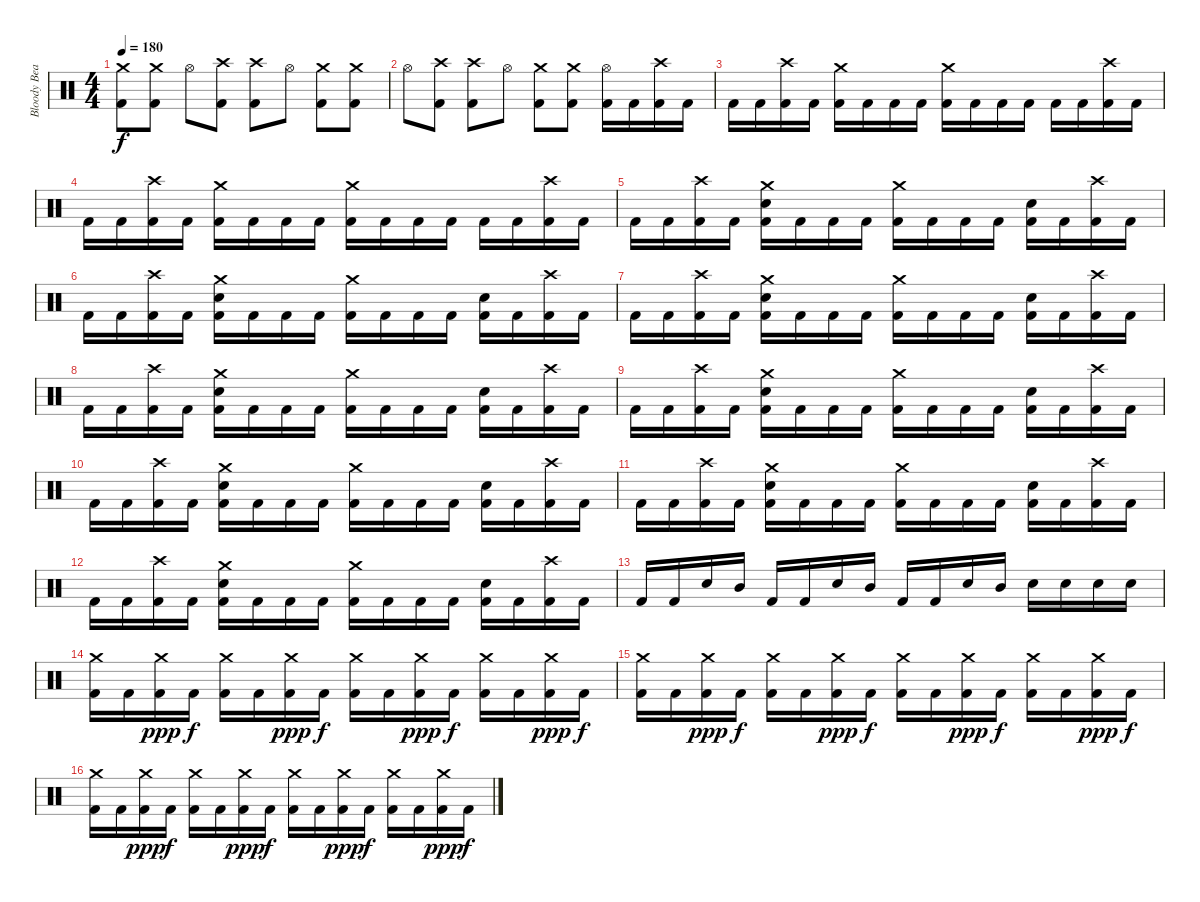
\track ("Bloody Beater" "Bloody Bea") {instrument percussion}
\staff {score}
\articulation defaults
\ts (4 4)
\tempo 180
\clef neutral
\ks c
("Crash medium (hit)" "Kick (hit) 2").8{dy f} ("Crash medium (hit)" "Kick (hit) 2").8 "Hi-Hat (open)".8 ("Crash high (hit)" "Kick (hit) 2").8 ("Crash high (hit)" "Kick (hit) 2").8 "Hi-Hat (open)".8 ("Crash medium (hit)" "Kick (hit) 2").8 ("Crash medium (hit)" "Kick (hit) 2").8 |
"Hi-Hat (open)".8 ("Crash high (hit)" "Kick (hit) 2").8 ("Crash high (hit)" "Kick (hit) 2").8 "Hi-Hat (open)".8 ("Crash medium (hit)" "Kick (hit) 2").8 ("Crash medium (hit)" "Kick (hit) 2").8 ("Hi-Hat (open)" "Kick (hit) 2").16 "Kick (hit) 2".16 ("Crash high (hit)" "Kick (hit) 2").16 "Kick (hit) 2".16 |
"Kick (hit) 2".16 "Kick (hit) 2".16 ("Crash high (hit)" "Kick (hit) 2").16 "Kick (hit) 2".16 ("Crash medium (hit)" "Kick (hit) 2").16 "Kick (hit) 2".16 "Kick (hit) 2".16 "Kick (hit) 2".16 ("Crash medium (hit)" "Kick (hit) 2").16 "Kick (hit) 2".16 "Kick (hit) 2".16 "Kick (hit) 2".16 "Kick (hit) 2".16 "Kick (hit) 2".16 ("Crash high (hit)" "Kick (hit) 2").16 "Kick (hit) 2".16 |
"Kick (hit) 2".16 "Kick (hit) 2".16 ("Crash high (hit)" "Kick (hit) 2").16 "Kick (hit) 2".16 ("Crash medium (hit)" "Kick (hit) 2").16 "Kick (hit) 2".16 "Kick (hit) 2".16 "Kick (hit) 2".16 ("Crash medium (hit)" "Kick (hit) 2").16 "Kick (hit) 2".16 "Kick (hit) 2".16 "Kick (hit) 2".16 "Kick (hit) 2".16 "Kick (hit) 2".16 ("Crash high (hit)" "Kick (hit) 2").16 "Kick (hit) 2".16 |
"Kick (hit) 2".16 "Kick (hit) 2".16 ("Crash high (hit)" "Kick (hit) 2").16 "Kick (hit) 2".16 ("Crash medium (hit)" "Snare (hit) 2" "Kick (hit) 2").16 "Kick (hit) 2".16 "Kick (hit) 2".16 "Kick (hit) 2".16 ("Crash medium (hit)" "Kick (hit) 2").16 "Kick (hit) 2".16 "Kick (hit) 2".16 "Kick (hit) 2".16 ("Snare (hit) 2" "Kick (hit) 2").16 "Kick (hit) 2".16 ("Crash high (hit)" "Kick (hit) 2").16 "Kick (hit) 2".16 |
"Kick (hit) 2".16 "Kick (hit) 2".16 ("Crash high (hit)" "Kick (hit) 2").16 "Kick (hit) 2".16 ("Crash medium (hit)" "Snare (hit) 2" "Kick (hit) 2").16 "Kick (hit) 2".16 "Kick (hit) 2".16 "Kick (hit) 2".16 ("Crash medium (hit)" "Kick (hit) 2").16 "Kick (hit) 2".16 "Kick (hit) 2".16 "Kick (hit) 2".16 ("Snare (hit) 2" "Kick (hit) 2").16 "Kick (hit) 2".16 ("Crash high (hit)" "Kick (hit) 2").16 "Kick (hit) 2".16 |
"Kick (hit) 2".16 "Kick (hit) 2".16 ("Crash high (hit)" "Kick (hit) 2").16 "Kick (hit) 2".16 ("Crash medium (hit)" "Snare (hit) 2" "Kick (hit) 2").16 "Kick (hit) 2".16 "Kick (hit) 2".16 "Kick (hit) 2".16 ("Crash medium (hit)" "Kick (hit) 2").16 "Kick (hit) 2".16 "Kick (hit) 2".16 "Kick (hit) 2".16 ("Snare (hit) 2" "Kick (hit) 2").16 "Kick (hit) 2".16 ("Crash high (hit)" "Kick (hit) 2").16 "Kick (hit) 2".16 |
"Kick (hit) 2".16 "Kick (hit) 2".16 ("Crash high (hit)" "Kick (hit) 2").16 "Kick (hit) 2".16 ("Crash medium (hit)" "Snare (hit) 2" "Kick (hit) 2").16 "Kick (hit) 2".16 "Kick (hit) 2".16 "Kick (hit) 2".16 ("Crash medium (hit)" "Kick (hit) 2").16 "Kick (hit) 2".16 "Kick (hit) 2".16 "Kick (hit) 2".16 ("Snare (hit) 2" "Kick (hit) 2").16 "Kick (hit) 2".16 ("Crash high (hit)" "Kick (hit) 2").16 "Kick (hit) 2".16 |
"Kick (hit) 2".16 "Kick (hit) 2".16 ("Crash high (hit)" "Kick (hit) 2").16 "Kick (hit) 2".16 ("Crash medium (hit)" "Snare (hit) 2" "Kick (hit) 2").16 "Kick (hit) 2".16 "Kick (hit) 2".16 "Kick (hit) 2".16 ("Crash medium (hit)" "Kick (hit) 2").16 "Kick (hit) 2".16 "Kick (hit) 2".16 "Kick (hit) 2".16 ("Snare (hit) 2" "Kick (hit) 2").16 "Kick (hit) 2".16 ("Crash high (hit)" "Kick (hit) 2").16 "Kick (hit) 2".16 |
"Kick (hit) 2".16 "Kick (hit) 2".16 ("Crash high (hit)" "Kick (hit) 2").16 "Kick (hit) 2".16 ("Crash medium (hit)" "Snare (hit) 2" "Kick (hit) 2").16 "Kick (hit) 2".16 "Kick (hit) 2".16 "Kick (hit) 2".16 ("Crash medium (hit)" "Kick (hit) 2").16 "Kick (hit) 2".16 "Kick (hit) 2".16 "Kick (hit) 2".16 ("Snare (hit) 2" "Kick (hit) 2").16 "Kick (hit) 2".16 ("Crash high (hit)" "Kick (hit) 2").16 "Kick (hit) 2".16 |
"Kick (hit) 2".16 "Kick (hit) 2".16 ("Crash high (hit)" "Kick (hit) 2").16 "Kick (hit) 2".16 ("Crash medium (hit)" "Snare (hit) 2" "Kick (hit) 2").16 "Kick (hit) 2".16 "Kick (hit) 2".16 "Kick (hit) 2".16 ("Crash medium (hit)" "Kick (hit) 2").16 "Kick (hit) 2".16 "Kick (hit) 2".16 "Kick (hit) 2".16 ("Snare (hit) 2" "Kick (hit) 2").16 "Kick (hit) 2".16 ("Crash high (hit)" "Kick (hit) 2").16 "Kick (hit) 2".16 |
"Kick (hit) 2".16 "Kick (hit) 2".16 ("Crash high (hit)" "Kick (hit) 2").16 "Kick (hit) 2".16 ("Crash medium (hit)" "Snare (hit) 2" "Kick (hit) 2").16 "Kick (hit) 2".16 "Kick (hit) 2".16 "Kick (hit) 2".16 ("Crash medium (hit)" "Kick (hit) 2").16 "Kick (hit) 2".16 "Kick (hit) 2".16 "Kick (hit) 2".16 ("Snare (hit) 2" "Kick (hit) 2").16 "Kick (hit) 2".16 ("Crash high (hit)" "Kick (hit) 2").16 "Kick (hit) 2".16 |
"Kick (hit) 2".16 "Kick (hit) 2".16 "Snare (hit) 2".16 "Mid Tom (hit)".16 "Kick (hit) 2".16 "Kick (hit) 2".16 "Snare (hit) 2".16 "Mid Tom (hit)".16 "Kick (hit) 2".16 "Kick (hit) 2".16 "Snare (hit) 2".16 "Mid Tom (hit)".16 "Snare (hit) 2".16 "Snare (hit) 2".16 "Snare (hit) 2".16 "Snare (hit) 2".16 |
("Crash medium (hit)" "Kick (hit) 2").16 "Kick (hit) 2".16 ("Crash medium (hit)" "Kick (hit) 2").16{dy ppp} "Kick (hit) 2".16{dy f} ("Crash medium (hit)" "Kick (hit) 2").16 "Kick (hit) 2".16 ("Crash medium (hit)" "Kick (hit) 2").16{dy ppp} "Kick (hit) 2".16{dy f} ("Crash medium (hit)" "Kick (hit) 2").16 "Kick (hit) 2".16 ("Crash medium (hit)" "Kick (hit) 2").16{dy ppp} "Kick (hit) 2".16{dy f} ("Crash medium (hit)" "Kick (hit) 2").16 "Kick (hit) 2".16 ("Crash medium (hit)" "Kick (hit) 2").16{dy ppp} "Kick (hit) 2".16{dy f} |
("Crash medium (hit)" "Kick (hit) 2").16 "Kick (hit) 2".16 ("Crash medium (hit)" "Kick (hit) 2").16{dy ppp} "Kick (hit) 2".16{dy f} ("Crash medium (hit)" "Kick (hit) 2").16 "Kick (hit) 2".16 ("Crash medium (hit)" "Kick (hit) 2").16{dy ppp} "Kick (hit) 2".16{dy f} ("Crash medium (hit)" "Kick (hit) 2").16 "Kick (hit) 2".16 ("Crash medium (hit)" "Kick (hit) 2").16{dy ppp} "Kick (hit) 2".16{dy f} ("Crash medium (hit)" "Kick (hit) 2").16 "Kick (hit) 2".16 ("Crash medium (hit)" "Kick (hit) 2").16{dy ppp} "Kick (hit) 2".16{dy f} |
("Crash medium (hit)" "Kick (hit) 2").16 "Kick (hit) 2".16 ("Crash medium (hit)" "Kick (hit) 2").16{dy ppp} "Kick (hit) 2".16{dy f} ("Crash medium (hit)" "Kick (hit) 2").16 "Kick (hit) 2".16 ("Crash medium (hit)" "Kick (hit) 2").16{dy ppp} "Kick (hit) 2".16{dy f} ("Crash medium (hit)" "Kick (hit) 2").16 "Kick (hit) 2".16 ("Crash medium (hit)" "Kick (hit) 2").16{dy ppp} "Kick (hit) 2".16{dy f} ("Crash medium (hit)" "Kick (hit) 2").16 "Kick (hit) 2".16 ("Crash medium (hit)" "Kick (hit) 2").16{dy ppp} "Kick (hit) 2".16{dy f}
